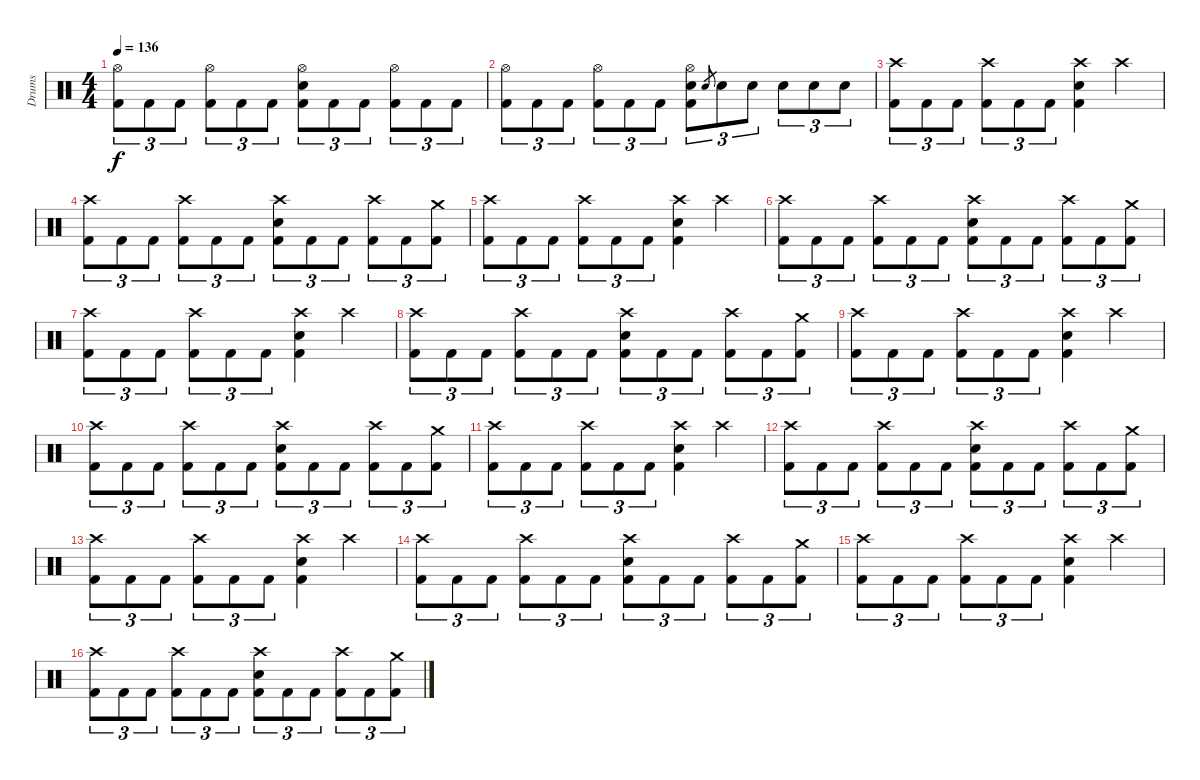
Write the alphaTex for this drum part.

\track ("Drums" "Drums") {instrument percussion}
\staff {score}
\articulation defaults
\ts (4 4)
\tempo 136
\clef neutral
\ks c
("Hi-Hat (open)" "Kick (hit) 2").8{tu (3 2) dy f} "Kick (hit) 2".8{tu (3 2)} "Kick (hit) 2".8{tu (3 2)} ("Hi-Hat (open)" "Kick (hit) 2").8{tu (3 2)} "Kick (hit) 2".8{tu (3 2)} "Kick (hit) 2".8{tu (3 2)} ("Hi-Hat (open)" "Electric Snare (hit)" "Kick (hit) 2").8{tu (3 2)} "Kick (hit) 2".8{tu (3 2)} "Kick (hit) 2".8{tu (3 2)} ("Hi-Hat (open)" "Kick (hit) 2").8{tu (3 2)} "Kick (hit) 2".8{tu (3 2)} "Kick (hit) 2".8{tu (3 2)} |
("Hi-Hat (open)" "Kick (hit) 2").8{tu (3 2)} "Kick (hit) 2".8{tu (3 2)} "Kick (hit) 2".8{tu (3 2)} ("Hi-Hat (open)" "Kick (hit) 2").8{tu (3 2)} "Kick (hit) 2".8{tu (3 2)} "Kick (hit) 2".8{tu (3 2)} ("Hi-Hat (open)" "Electric Snare (hit)" "Kick (hit) 2").8{tu (3 2)} "Electric Snare (hit)".8{gr} "Electric Snare (hit)".8{tu (3 2)} "Electric Snare (hit)".8{tu (3 2)} "Electric Snare (hit)".8{tu (3 2)} "Electric Snare (hit)".8{tu (3 2)} "Electric Snare (hit)".8{tu (3 2)} |
("Crash high (hit)" "Kick (hit) 2").8{tu (3 2)} "Kick (hit) 2".8{tu (3 2)} "Kick (hit) 2".8{tu (3 2)} ("Crash high (hit)" "Kick (hit) 2").8{tu (3 2)} "Kick (hit) 2".8{tu (3 2)} "Kick (hit) 2".8{tu (3 2)} ("Crash high (hit)" "Electric Snare (hit)" "Kick (hit) 2").4 "Crash high (hit)".4 |
("Crash high (hit)" "Kick (hit) 2").8{tu (3 2)} "Kick (hit) 2".8{tu (3 2)} "Kick (hit) 2".8{tu (3 2)} ("Crash high (hit)" "Kick (hit) 2").8{tu (3 2)} "Kick (hit) 2".8{tu (3 2)} "Kick (hit) 2".8{tu (3 2)} ("Crash high (hit)" "Electric Snare (hit)" "Kick (hit) 2").8{tu (3 2)} "Kick (hit) 2".8{tu (3 2)} "Kick (hit) 2".8{tu (3 2)} ("Crash high (hit)" "Kick (hit) 2").8{tu (3 2)} "Kick (hit) 2".8{tu (3 2)} ("Crash medium (hit)" "Kick (hit) 2").8{tu (3 2)} |
("Crash high (hit)" "Kick (hit) 2").8{tu (3 2)} "Kick (hit) 2".8{tu (3 2)} "Kick (hit) 2".8{tu (3 2)} ("Crash high (hit)" "Kick (hit) 2").8{tu (3 2)} "Kick (hit) 2".8{tu (3 2)} "Kick (hit) 2".8{tu (3 2)} ("Crash high (hit)" "Electric Snare (hit)" "Kick (hit) 2").4 "Crash high (hit)".4 |
("Crash high (hit)" "Kick (hit) 2").8{tu (3 2)} "Kick (hit) 2".8{tu (3 2)} "Kick (hit) 2".8{tu (3 2)} ("Crash high (hit)" "Kick (hit) 2").8{tu (3 2)} "Kick (hit) 2".8{tu (3 2)} "Kick (hit) 2".8{tu (3 2)} ("Crash high (hit)" "Electric Snare (hit)" "Kick (hit) 2").8{tu (3 2)} "Kick (hit) 2".8{tu (3 2)} "Kick (hit) 2".8{tu (3 2)} ("Crash high (hit)" "Kick (hit) 2").8{tu (3 2)} "Kick (hit) 2".8{tu (3 2)} ("Crash medium (hit)" "Kick (hit) 2").8{tu (3 2)} |
("Crash high (hit)" "Kick (hit) 2").8{tu (3 2)} "Kick (hit) 2".8{tu (3 2)} "Kick (hit) 2".8{tu (3 2)} ("Crash high (hit)" "Kick (hit) 2").8{tu (3 2)} "Kick (hit) 2".8{tu (3 2)} "Kick (hit) 2".8{tu (3 2)} ("Crash high (hit)" "Electric Snare (hit)" "Kick (hit) 2").4 "Crash high (hit)".4 |
("Crash high (hit)" "Kick (hit) 2").8{tu (3 2)} "Kick (hit) 2".8{tu (3 2)} "Kick (hit) 2".8{tu (3 2)} ("Crash high (hit)" "Kick (hit) 2").8{tu (3 2)} "Kick (hit) 2".8{tu (3 2)} "Kick (hit) 2".8{tu (3 2)} ("Crash high (hit)" "Electric Snare (hit)" "Kick (hit) 2").8{tu (3 2)} "Kick (hit) 2".8{tu (3 2)} "Kick (hit) 2".8{tu (3 2)} ("Crash high (hit)" "Kick (hit) 2").8{tu (3 2)} "Kick (hit) 2".8{tu (3 2)} ("Crash medium (hit)" "Kick (hit) 2").8{tu (3 2)} |
("Crash high (hit)" "Kick (hit) 2").8{tu (3 2)} "Kick (hit) 2".8{tu (3 2)} "Kick (hit) 2".8{tu (3 2)} ("Crash high (hit)" "Kick (hit) 2").8{tu (3 2)} "Kick (hit) 2".8{tu (3 2)} "Kick (hit) 2".8{tu (3 2)} ("Crash high (hit)" "Electric Snare (hit)" "Kick (hit) 2").4 "Crash high (hit)".4 |
("Crash high (hit)" "Kick (hit) 2").8{tu (3 2)} "Kick (hit) 2".8{tu (3 2)} "Kick (hit) 2".8{tu (3 2)} ("Crash high (hit)" "Kick (hit) 2").8{tu (3 2)} "Kick (hit) 2".8{tu (3 2)} "Kick (hit) 2".8{tu (3 2)} ("Crash high (hit)" "Electric Snare (hit)" "Kick (hit) 2").8{tu (3 2)} "Kick (hit) 2".8{tu (3 2)} "Kick (hit) 2".8{tu (3 2)} ("Crash high (hit)" "Kick (hit) 2").8{tu (3 2)} "Kick (hit) 2".8{tu (3 2)} ("Crash medium (hit)" "Kick (hit) 2").8{tu (3 2)} |
("Crash high (hit)" "Kick (hit) 2").8{tu (3 2)} "Kick (hit) 2".8{tu (3 2)} "Kick (hit) 2".8{tu (3 2)} ("Crash high (hit)" "Kick (hit) 2").8{tu (3 2)} "Kick (hit) 2".8{tu (3 2)} "Kick (hit) 2".8{tu (3 2)} ("Crash high (hit)" "Electric Snare (hit)" "Kick (hit) 2").4 "Crash high (hit)".4 |
("Crash high (hit)" "Kick (hit) 2").8{tu (3 2)} "Kick (hit) 2".8{tu (3 2)} "Kick (hit) 2".8{tu (3 2)} ("Crash high (hit)" "Kick (hit) 2").8{tu (3 2)} "Kick (hit) 2".8{tu (3 2)} "Kick (hit) 2".8{tu (3 2)} ("Crash high (hit)" "Electric Snare (hit)" "Kick (hit) 2").8{tu (3 2)} "Kick (hit) 2".8{tu (3 2)} "Kick (hit) 2".8{tu (3 2)} ("Crash high (hit)" "Kick (hit) 2").8{tu (3 2)} "Kick (hit) 2".8{tu (3 2)} ("Crash medium (hit)" "Kick (hit) 2").8{tu (3 2)} |
("Crash high (hit)" "Kick (hit) 2").8{tu (3 2)} "Kick (hit) 2".8{tu (3 2)} "Kick (hit) 2".8{tu (3 2)} ("Crash high (hit)" "Kick (hit) 2").8{tu (3 2)} "Kick (hit) 2".8{tu (3 2)} "Kick (hit) 2".8{tu (3 2)} ("Crash high (hit)" "Electric Snare (hit)" "Kick (hit) 2").4 "Crash high (hit)".4 |
("Crash high (hit)" "Kick (hit) 2").8{tu (3 2)} "Kick (hit) 2".8{tu (3 2)} "Kick (hit) 2".8{tu (3 2)} ("Crash high (hit)" "Kick (hit) 2").8{tu (3 2)} "Kick (hit) 2".8{tu (3 2)} "Kick (hit) 2".8{tu (3 2)} ("Crash high (hit)" "Electric Snare (hit)" "Kick (hit) 2").8{tu (3 2)} "Kick (hit) 2".8{tu (3 2)} "Kick (hit) 2".8{tu (3 2)} ("Crash high (hit)" "Kick (hit) 2").8{tu (3 2)} "Kick (hit) 2".8{tu (3 2)} ("Crash medium (hit)" "Kick (hit) 2").8{tu (3 2)} |
("Crash high (hit)" "Kick (hit) 2").8{tu (3 2)} "Kick (hit) 2".8{tu (3 2)} "Kick (hit) 2".8{tu (3 2)} ("Crash high (hit)" "Kick (hit) 2").8{tu (3 2)} "Kick (hit) 2".8{tu (3 2)} "Kick (hit) 2".8{tu (3 2)} ("Crash high (hit)" "Electric Snare (hit)" "Kick (hit) 2").4 "Crash high (hit)".4 |
("Crash high (hit)" "Kick (hit) 2").8{tu (3 2)} "Kick (hit) 2".8{tu (3 2)} "Kick (hit) 2".8{tu (3 2)} ("Crash high (hit)" "Kick (hit) 2").8{tu (3 2)} "Kick (hit) 2".8{tu (3 2)} "Kick (hit) 2".8{tu (3 2)} ("Crash high (hit)" "Electric Snare (hit)" "Kick (hit) 2").8{tu (3 2)} "Kick (hit) 2".8{tu (3 2)} "Kick (hit) 2".8{tu (3 2)} ("Crash high (hit)" "Kick (hit) 2").8{tu (3 2)} "Kick (hit) 2".8{tu (3 2)} ("Crash medium (hit)" "Kick (hit) 2").8{tu (3 2)}
